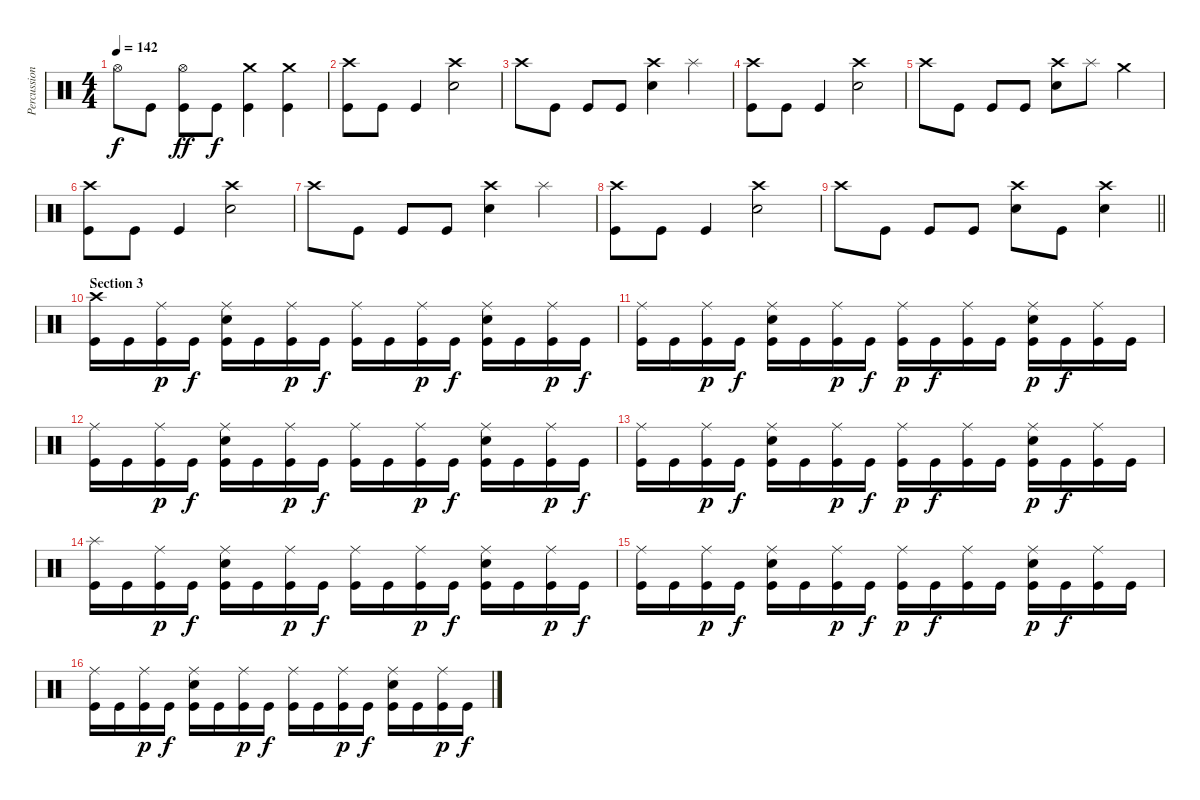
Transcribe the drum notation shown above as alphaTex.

\track ("Percussion" "Percussion") {instrument percussion}
\staff {score}
\articulation defaults
\ts (4 4)
\tempo 142
\clef neutral
\ks c "Hi-Hat (open)".8{dy f} "Kick (hit)".8
("Hi-Hat (open)" "Kick (hit)").8{dy ff} "Kick (hit)".8{dy f} ("Crash medium (hit)" "Kick (hit)").4 ("Crash medium (hit)" "Kick (hit)").4 |
("Crash high (hit)" "Kick (hit)").8 "Kick (hit)".8 "Kick (hit)".4 ("Snare (hit) 2" "Crash high (hit)").2 |
"Crash high (hit)".8 "Kick (hit)".8 "Kick (hit)".8 "Kick (hit)".8 ("Snare (hit) 2" "Crash high (hit)").4 "Splash (hit)".4 |
("Crash high (hit)" "Kick (hit)").8 "Kick (hit)".8 "Kick (hit)".4 ("Snare (hit) 2" "Crash high (hit)").2 |
"Crash high (hit)".8 "Kick (hit)".8 "Kick (hit)".8 "Kick (hit)".8 ("Snare (hit) 2" "Crash high (hit)").8 "Splash (hit)".8 "Crash medium (hit)".4 |
("Crash high (hit)" "Kick (hit)").8 "Kick (hit)".8 "Kick (hit)".4 ("Snare (hit) 2" "Crash high (hit)").2 |
"Crash high (hit)".8 "Kick (hit)".8 "Kick (hit)".8 "Kick (hit)".8 ("Snare (hit) 2" "Crash high (hit)").4 "Splash (hit)".4 |
("Crash high (hit)" "Kick (hit)").8 "Kick (hit)".8 "Kick (hit)".4 ("Snare (hit) 2" "Crash high (hit)").2 |
\barLineRight lightlight "Crash high (hit)".8 "Kick (hit)".8 "Kick (hit)".8 "Kick (hit)".8
("Snare (hit) 2" "Crash high (hit)").8 "Kick (hit)".8 ("Snare (hit) 2" "Crash high (hit)").4 |
\section ("" "Section 3")
("Crash high (hit)" "Kick (hit)").16 "Kick (hit)".16 ("Ride (middle)" "Kick (hit)").16{dy p} "Kick (hit)".16{dy f} ("Ride (middle)" "Snare (hit) 2" "Kick (hit)").16 "Kick (hit)".16 ("Ride (middle)" "Kick (hit)").16{dy p} "Kick (hit)".16{dy f} ("Ride (middle)" "Kick (hit)").16 "Kick (hit)".16 ("Ride (middle)" "Kick (hit)").16{dy p} "Kick (hit)".16{dy f} ("Ride (middle)" "Snare (hit) 2" "Kick (hit)").16 "Kick (hit)".16 ("Ride (middle)" "Kick (hit)").16{dy p} "Kick (hit)".16{dy f} |
("Ride (middle)" "Kick (hit)").16 "Kick (hit)".16 ("Ride (middle)" "Kick (hit)").16{dy p} "Kick (hit)".16{dy f} ("Snare (hit) 2" "Ride (middle)" "Kick (hit)").16 "Kick (hit)".16 ("Ride (middle)" "Kick (hit)").16{dy p} "Kick (hit)".16{dy f} ("Ride (middle)" "Kick (hit)").16{dy p} "Kick (hit)".16{dy f} ("Ride (middle)" "Kick (hit)").16 "Kick (hit)".16 ("Snare (hit) 2" "Ride (middle)" "Kick (hit)").16{dy p} "Kick (hit)".16{dy f} ("Ride (middle)" "Kick (hit)").16 "Kick (hit)".16 |
("Ride (middle)" "Kick (hit)").16 "Kick (hit)".16 ("Ride (middle)" "Kick (hit)").16{dy p} "Kick (hit)".16{dy f} ("Ride (middle)" "Snare (hit) 2" "Kick (hit)").16 "Kick (hit)".16 ("Ride (middle)" "Kick (hit)").16{dy p} "Kick (hit)".16{dy f} ("Ride (middle)" "Kick (hit)").16 "Kick (hit)".16 ("Ride (middle)" "Kick (hit)").16{dy p} "Kick (hit)".16{dy f} ("Ride (middle)" "Snare (hit) 2" "Kick (hit)").16 "Kick (hit)".16 ("Ride (middle)" "Kick (hit)").16{dy p} "Kick (hit)".16{dy f} |
("Ride (middle)" "Kick (hit)").16 "Kick (hit)".16 ("Ride (middle)" "Kick (hit)").16{dy p} "Kick (hit)".16{dy f} ("Snare (hit) 2" "Ride (middle)" "Kick (hit)").16 "Kick (hit)".16 ("Ride (middle)" "Kick (hit)").16{dy p} "Kick (hit)".16{dy f} ("Ride (middle)" "Kick (hit)").16{dy p} "Kick (hit)".16{dy f} ("Ride (middle)" "Kick (hit)").16 "Kick (hit)".16 ("Snare (hit) 2" "Ride (middle)" "Kick (hit)").16{dy p} "Kick (hit)".16{dy f} ("Ride (middle)" "Kick (hit)").16 "Kick (hit)".16 |
("Splash (hit)" "Kick (hit)").16 "Kick (hit)".16 ("Ride (middle)" "Kick (hit)").16{dy p} "Kick (hit)".16{dy f} ("Ride (middle)" "Snare (hit) 2" "Kick (hit)").16 "Kick (hit)".16 ("Ride (middle)" "Kick (hit)").16{dy p} "Kick (hit)".16{dy f} ("Ride (middle)" "Kick (hit)").16 "Kick (hit)".16 ("Ride (middle)" "Kick (hit)").16{dy p} "Kick (hit)".16{dy f} ("Ride (middle)" "Snare (hit) 2" "Kick (hit)").16 "Kick (hit)".16 ("Ride (middle)" "Kick (hit)").16{dy p} "Kick (hit)".16{dy f} |
("Ride (middle)" "Kick (hit)").16 "Kick (hit)".16 ("Ride (middle)" "Kick (hit)").16{dy p} "Kick (hit)".16{dy f} ("Snare (hit) 2" "Ride (middle)" "Kick (hit)").16 "Kick (hit)".16 ("Ride (middle)" "Kick (hit)").16{dy p} "Kick (hit)".16{dy f} ("Ride (middle)" "Kick (hit)").16{dy p} "Kick (hit)".16{dy f} ("Ride (middle)" "Kick (hit)").16 "Kick (hit)".16 ("Snare (hit) 2" "Ride (middle)" "Kick (hit)").16{dy p} "Kick (hit)".16{dy f} ("Ride (middle)" "Kick (hit)").16 "Kick (hit)".16 |
("Ride (middle)" "Kick (hit)").16 "Kick (hit)".16 ("Ride (middle)" "Kick (hit)").16{dy p} "Kick (hit)".16{dy f} ("Ride (middle)" "Snare (hit) 2" "Kick (hit)").16 "Kick (hit)".16 ("Ride (middle)" "Kick (hit)").16{dy p} "Kick (hit)".16{dy f} ("Ride (middle)" "Kick (hit)").16 "Kick (hit)".16 ("Ride (middle)" "Kick (hit)").16{dy p} "Kick (hit)".16{dy f} ("Ride (middle)" "Snare (hit) 2" "Kick (hit)").16 "Kick (hit)".16 ("Ride (middle)" "Kick (hit)").16{dy p} "Kick (hit)".16{dy f}
